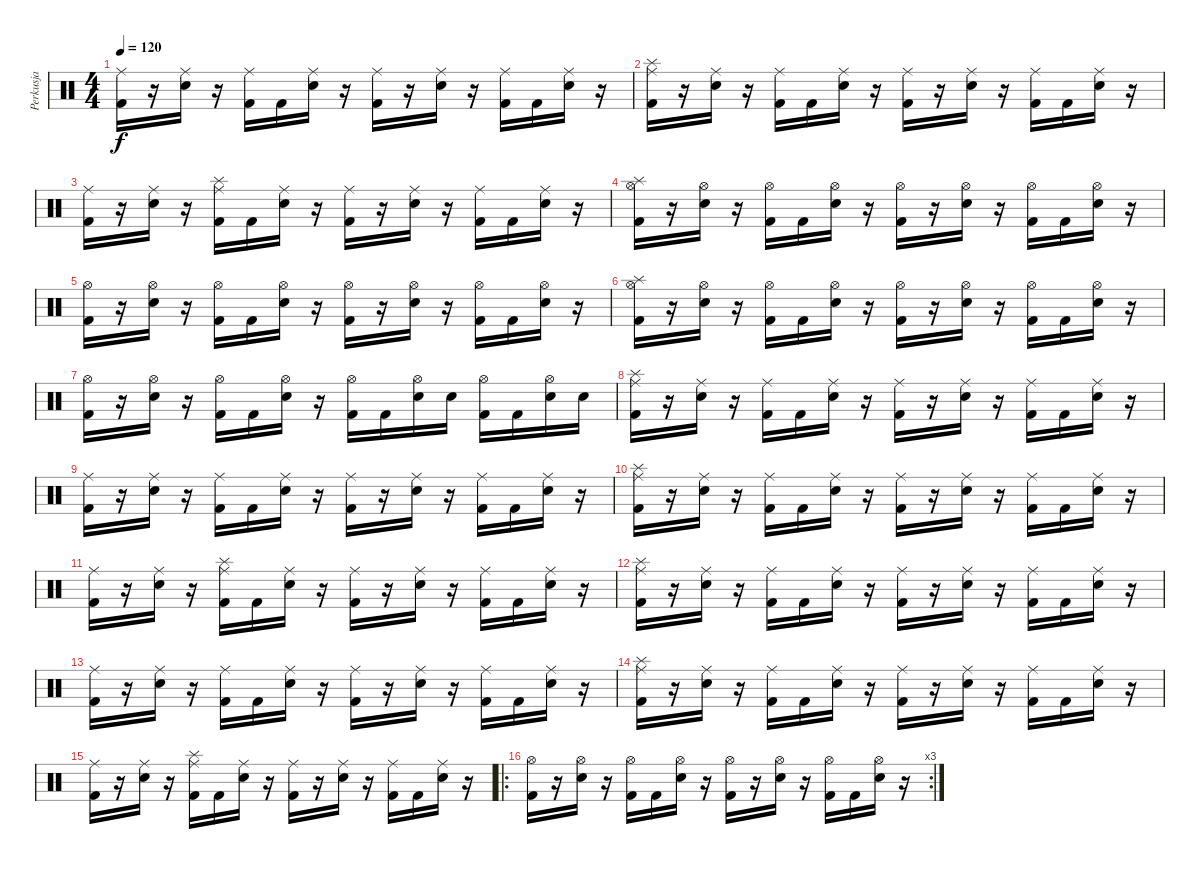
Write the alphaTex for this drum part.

\track ("Perkusja" "Perkusja") {instrument percussion}
\staff {score}
\articulation defaults
\ts (4 4)
\tempo 120
\clef neutral
\ks c
("Ride (middle)" "Kick (hit) 2").16{dy f} r.16 ("Ride (middle)" "Electric Snare (hit)").16 r.16 ("Ride (middle)" "Kick (hit) 2").16 "Kick (hit) 2".16 ("Ride (middle)" "Electric Snare (hit)").16 r.16 ("Ride (middle)" "Kick (hit) 2").16 r.16 ("Ride (middle)" "Electric Snare (hit)").16 r.16 ("Ride (middle)" "Kick (hit) 2").16 "Kick (hit) 2".16 ("Ride (middle)" "Electric Snare (hit)").16 r.16 |
("Splash (hit)" "Ride (middle)" "Kick (hit) 2").16 r.16 ("Ride (middle)" "Electric Snare (hit)").16 r.16 ("Ride (middle)" "Kick (hit) 2").16 "Kick (hit) 2".16 ("Ride (middle)" "Electric Snare (hit)").16 r.16 ("Ride (middle)" "Kick (hit) 2").16 r.16 ("Ride (middle)" "Electric Snare (hit)").16 r.16 ("Ride (middle)" "Kick (hit) 2").16 "Kick (hit) 2".16 ("Ride (middle)" "Electric Snare (hit)").16 r.16 |
("Ride (middle)" "Kick (hit) 2").16 r.16 ("Ride (middle)" "Electric Snare (hit)").16 r.16 ("Splash (hit)" "Ride (middle)" "Kick (hit) 2").16 "Kick (hit) 2".16 ("Ride (middle)" "Electric Snare (hit)").16 r.16 ("Ride (middle)" "Kick (hit) 2").16 r.16 ("Ride (middle)" "Electric Snare (hit)").16 r.16 ("Ride (middle)" "Kick (hit) 2").16 "Kick (hit) 2".16 ("Ride (middle)" "Electric Snare (hit)").16 r.16 |
("Splash (hit)" "Hi-Hat (open)" "Kick (hit) 2").16 r.16 ("Hi-Hat (open)" "Electric Snare (hit)").16 r.16 ("Hi-Hat (open)" "Kick (hit) 2").16 "Kick (hit) 2".16 ("Hi-Hat (open)" "Electric Snare (hit)").16 r.16 ("Hi-Hat (open)" "Kick (hit) 2").16 r.16 ("Hi-Hat (open)" "Electric Snare (hit)").16 r.16 ("Hi-Hat (open)" "Kick (hit) 2").16 "Kick (hit) 2".16 ("Hi-Hat (open)" "Electric Snare (hit)").16 r.16 |
("Hi-Hat (open)" "Kick (hit) 2").16 r.16 ("Hi-Hat (open)" "Electric Snare (hit)").16 r.16 ("Hi-Hat (open)" "Kick (hit) 2").16 "Kick (hit) 2".16 ("Hi-Hat (open)" "Electric Snare (hit)").16 r.16 ("Hi-Hat (open)" "Kick (hit) 2").16 r.16 ("Hi-Hat (open)" "Electric Snare (hit)").16 r.16 ("Hi-Hat (open)" "Kick (hit) 2").16 "Kick (hit) 2".16 ("Hi-Hat (open)" "Electric Snare (hit)").16 r.16 |
("Splash (hit)" "Hi-Hat (open)" "Kick (hit) 2").16 r.16 ("Hi-Hat (open)" "Electric Snare (hit)").16 r.16 ("Hi-Hat (open)" "Kick (hit) 2").16 "Kick (hit) 2".16 ("Hi-Hat (open)" "Electric Snare (hit)").16 r.16 ("Hi-Hat (open)" "Kick (hit) 2").16 r.16 ("Hi-Hat (open)" "Electric Snare (hit)").16 r.16 ("Hi-Hat (open)" "Kick (hit) 2").16 "Kick (hit) 2".16 ("Hi-Hat (open)" "Electric Snare (hit)").16 r.16 |
("Hi-Hat (open)" "Kick (hit) 2").16 r.16 ("Hi-Hat (open)" "Electric Snare (hit)").16 r.16 ("Hi-Hat (open)" "Kick (hit) 2").16 "Kick (hit) 2".16 ("Hi-Hat (open)" "Electric Snare (hit)").16 r.16 ("Hi-Hat (open)" "Kick (hit) 2").16 "Kick (hit) 2".16 ("Hi-Hat (open)" "Electric Snare (hit)").16 "Electric Snare (hit)".16 ("Hi-Hat (open)" "Kick (hit) 2").16 "Kick (hit) 2".16 ("Hi-Hat (open)" "Electric Snare (hit)").16 "Electric Snare (hit)".16 |
("Splash (hit)" "Ride (middle)" "Kick (hit) 2").16 r.16 ("Ride (middle)" "Electric Snare (hit)").16 r.16 ("Ride (middle)" "Kick (hit) 2").16 "Kick (hit) 2".16 ("Ride (middle)" "Electric Snare (hit)").16 r.16 ("Ride (middle)" "Kick (hit) 2").16 r.16 ("Ride (middle)" "Electric Snare (hit)").16 r.16 ("Ride (middle)" "Kick (hit) 2").16 "Kick (hit) 2".16 ("Ride (middle)" "Electric Snare (hit)").16 r.16 |
("Ride (middle)" "Kick (hit) 2").16 r.16 ("Ride (middle)" "Electric Snare (hit)").16 r.16 ("Ride (middle)" "Kick (hit) 2").16 "Kick (hit) 2".16 ("Ride (middle)" "Electric Snare (hit)").16 r.16 ("Ride (middle)" "Kick (hit) 2").16 r.16 ("Ride (middle)" "Electric Snare (hit)").16 r.16 ("Ride (middle)" "Kick (hit) 2").16 "Kick (hit) 2".16 ("Ride (middle)" "Electric Snare (hit)").16 r.16 |
("Splash (hit)" "Ride (middle)" "Kick (hit) 2").16 r.16 ("Ride (middle)" "Electric Snare (hit)").16 r.16 ("Ride (middle)" "Kick (hit) 2").16 "Kick (hit) 2".16 ("Ride (middle)" "Electric Snare (hit)").16 r.16 ("Ride (middle)" "Kick (hit) 2").16 r.16 ("Ride (middle)" "Electric Snare (hit)").16 r.16 ("Ride (middle)" "Kick (hit) 2").16 "Kick (hit) 2".16 ("Ride (middle)" "Electric Snare (hit)").16 r.16 |
("Ride (middle)" "Kick (hit) 2").16 r.16 ("Ride (middle)" "Electric Snare (hit)").16 r.16 ("Splash (hit)" "Ride (middle)" "Kick (hit) 2").16 "Kick (hit) 2".16 ("Ride (middle)" "Electric Snare (hit)").16 r.16 ("Ride (middle)" "Kick (hit) 2").16 r.16 ("Ride (middle)" "Electric Snare (hit)").16 r.16 ("Ride (middle)" "Kick (hit) 2").16 "Kick (hit) 2".16 ("Ride (middle)" "Electric Snare (hit)").16 r.16 |
("Splash (hit)" "Ride (middle)" "Kick (hit) 2").16 r.16 ("Ride (middle)" "Electric Snare (hit)").16 r.16 ("Ride (middle)" "Kick (hit) 2").16 "Kick (hit) 2".16 ("Ride (middle)" "Electric Snare (hit)").16 r.16 ("Ride (middle)" "Kick (hit) 2").16 r.16 ("Ride (middle)" "Electric Snare (hit)").16 r.16 ("Ride (middle)" "Kick (hit) 2").16 "Kick (hit) 2".16 ("Ride (middle)" "Electric Snare (hit)").16 r.16 |
("Ride (middle)" "Kick (hit) 2").16 r.16 ("Ride (middle)" "Electric Snare (hit)").16 r.16 ("Ride (middle)" "Kick (hit) 2").16 "Kick (hit) 2".16 ("Ride (middle)" "Electric Snare (hit)").16 r.16 ("Ride (middle)" "Kick (hit) 2").16 r.16 ("Ride (middle)" "Electric Snare (hit)").16 r.16 ("Ride (middle)" "Kick (hit) 2").16 "Kick (hit) 2".16 ("Ride (middle)" "Electric Snare (hit)").16 r.16 |
("Splash (hit)" "Ride (middle)" "Kick (hit) 2").16 r.16 ("Ride (middle)" "Electric Snare (hit)").16 r.16 ("Ride (middle)" "Kick (hit) 2").16 "Kick (hit) 2".16 ("Ride (middle)" "Electric Snare (hit)").16 r.16 ("Ride (middle)" "Kick (hit) 2").16 r.16 ("Ride (middle)" "Electric Snare (hit)").16 r.16 ("Ride (middle)" "Kick (hit) 2").16 "Kick (hit) 2".16 ("Ride (middle)" "Electric Snare (hit)").16 r.16 |
("Ride (middle)" "Kick (hit) 2").16 r.16 ("Ride (middle)" "Electric Snare (hit)").16 r.16 ("Splash (hit)" "Ride (middle)" "Kick (hit) 2").16 "Kick (hit) 2".16 ("Ride (middle)" "Electric Snare (hit)").16 r.16 ("Ride (middle)" "Kick (hit) 2").16 r.16 ("Ride (middle)" "Electric Snare (hit)").16 r.16 ("Ride (middle)" "Kick (hit) 2").16 "Kick (hit) 2".16 ("Ride (middle)" "Electric Snare (hit)").16 r.16 |
\ro
\rc 3
("Hi-Hat (open)" "Kick (hit) 2").16 r.16 ("Hi-Hat (open)" "Electric Snare (hit)").16 r.16 ("Hi-Hat (open)" "Kick (hit) 2").16 "Kick (hit) 2".16 ("Hi-Hat (open)" "Electric Snare (hit)").16 r.16 ("Hi-Hat (open)" "Kick (hit) 2").16 r.16 ("Hi-Hat (open)" "Electric Snare (hit)").16 r.16 ("Hi-Hat (open)" "Kick (hit) 2").16 "Kick (hit) 2".16 ("Hi-Hat (open)" "Electric Snare (hit)").16 r.16
